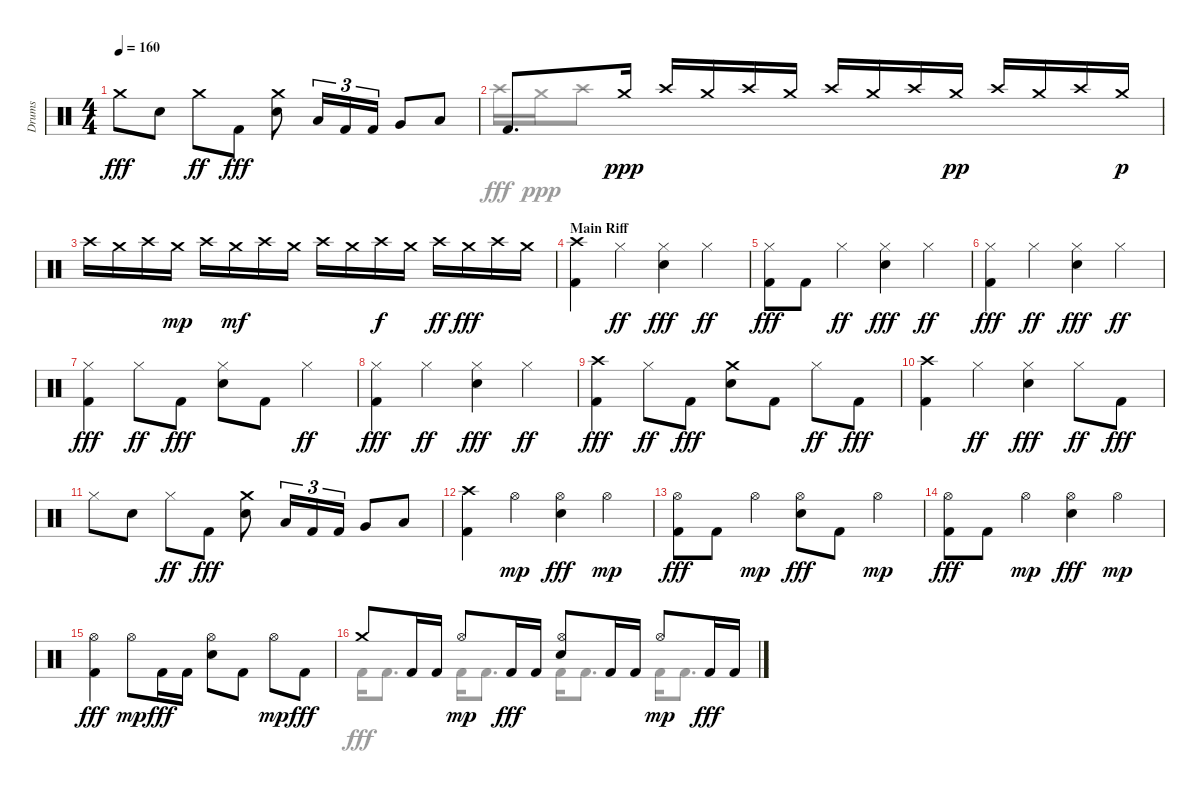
\track ("Drums" "Drums") {instrument percussion}
\staff {score}
\articulation defaults
\voice
\ts (4 4)
\tempo 160
\clef neutral
\ks aminor "Crash medium (hit)".8{dy fff} "Snare (hit) 2".8 "Crash medium (hit)".8{dy ff} "Kick (hit) 2".8{dy fff}
("Crash medium (hit)" "Snare (hit) 2").8 "Low Tom (hit)".16{tu (3 2)} "Kick (hit) 2".16{tu (3 2)} "Kick (hit) 2".16{tu (3 2)} "Very Low Tom (hit)".8 "Low Floor Tom (hit)".8 |
"Kick (hit) 2".8{d} "Crash medium (hit)".16{dy ppp} "Crash high (hit)".16 "Crash medium (hit)".16 "Crash high (hit)".16 "Crash medium (hit)".16 "Crash high (hit)".16 "Crash medium (hit)".16 "Crash high (hit)".16 "Crash medium (hit)".16{dy pp} "Crash high (hit)".16 "Crash medium (hit)".16 "Crash high (hit)".16 "Crash medium (hit)".16{dy p} |
"Crash high (hit)".16 "Crash medium (hit)".16 "Crash high (hit)".16 "Crash medium (hit)".16{dy mp} "Crash high (hit)".16 "Crash medium (hit)".16{dy mf} "Crash high (hit)".16 "Crash medium (hit)".16 "Crash high (hit)".16 "Crash medium (hit)".16 "Crash high (hit)".16{dy f} "Crash medium (hit)".16 "Crash high (hit)".16{dy ff} "Crash medium (hit)".16{dy fff} "Crash high (hit)".16 "Crash medium (hit)".16 |
\section ("" "Main Riff")
("Kick (hit) 2" "Crash high (hit)").4 "Hi-Hat (closed)".4{dy ff} ("Snare (hit) 2" "Hi-Hat (closed)").4{dy fff} "Hi-Hat (closed)".4{dy ff} |
("Kick (hit) 2" "Hi-Hat (closed)").8{dy fff} "Kick (hit) 2".8 "Hi-Hat (closed)".4{dy ff} ("Snare (hit) 2" "Hi-Hat (closed)").4{dy fff} "Hi-Hat (closed)".4{dy ff} |
("Kick (hit) 2" "Hi-Hat (closed)").4{dy fff} "Hi-Hat (closed)".4{dy ff} ("Snare (hit) 2" "Hi-Hat (closed)").4{dy fff} "Hi-Hat (closed)".4{dy ff} |
("Kick (hit) 2" "Hi-Hat (closed)").4{dy fff} "Hi-Hat (closed)".8{dy ff} "Kick (hit) 2".8{dy fff} ("Snare (hit) 2" "Hi-Hat (closed)").8 "Kick (hit) 2".8 "Hi-Hat (closed)".4{dy ff} |
("Kick (hit) 2" "Hi-Hat (closed)").4{dy fff} "Hi-Hat (closed)".4{dy ff} ("Snare (hit) 2" "Hi-Hat (closed)").4{dy fff} "Hi-Hat (closed)".4{dy ff} |
("Kick (hit) 2" "Crash high (hit)").4{dy fff} "Hi-Hat (closed)".8{dy ff} "Kick (hit) 2".8{dy fff} ("Snare (hit) 2" "Crash medium (hit)").8 "Kick (hit) 2".8 "Hi-Hat (closed)".8{dy ff} "Kick (hit) 2".8{dy fff} |
("Kick (hit) 2" "Crash high (hit)").4 "Hi-Hat (closed)".4{dy ff} ("Snare (hit) 2" "Hi-Hat (closed)").4{dy fff} "Hi-Hat (closed)".8{dy ff} "Kick (hit) 2".8{dy fff} |
"Hi-Hat (closed)".8 "Snare (hit) 2".8 "Hi-Hat (closed)".8{dy ff} "Kick (hit) 2".8{dy fff} ("Snare (hit) 2" "Crash medium (hit)").8 "Low Tom (hit)".16{tu (3 2)} "Kick (hit) 2".16{tu (3 2)} "Kick (hit) 2".16{tu (3 2)} "Very Low Tom (hit)".8 "Low Floor Tom (hit)".8 |
("Kick (hit) 2" "Crash high (hit)").4 "Hi-Hat (open)".4{dy mp} ("Snare (hit) 2" "Hi-Hat (open)").4{dy fff} "Hi-Hat (open)".4{dy mp} |
("Kick (hit) 2" "Hi-Hat (open)").8{dy fff} "Kick (hit) 2".8 "Hi-Hat (open)".4{dy mp} ("Hi-Hat (open)" "Snare (hit) 2").8{dy fff} "Kick (hit) 2".8 "Hi-Hat (open)".4{dy mp} |
("Hi-Hat (open)" "Kick (hit) 2").8{dy fff} "Kick (hit) 2".8 "Hi-Hat (open)".4{dy mp} ("Snare (hit) 2" "Hi-Hat (open)").4{dy fff} "Hi-Hat (open)".4{dy mp} |
("Hi-Hat (open)" "Kick (hit) 2").4{dy fff} "Hi-Hat (open)".8{dy mp} "Kick (hit) 2".16{dy fff} "Kick (hit) 2".16 ("Snare (hit) 2" "Hi-Hat (open)").8 "Kick (hit) 2".8 "Hi-Hat (open)".8{dy mp} "Kick (hit) 2".8{dy fff} |
"Crash medium (hit)".8 "Kick (hit) 2".16 "Kick (hit) 2".16 "Hi-Hat (open)".8{dy mp} "Kick (hit) 2".16{dy fff} "Kick (hit) 2".16 ("Snare (hit) 2" "Hi-Hat (open)").8 "Kick (hit) 2".16 "Kick (hit) 2".16 "Hi-Hat (open)".8{dy mp} "Kick (hit) 2".16{dy fff} "Kick (hit) 2".16
\voice
\clef neutral
\ottava regular
\simile none
\ks aminor
|
"Crash high (hit)".16{dy fff} "Crash medium (hit)".16{dy ppp} "Crash high (hit)".8 |
|
|
|
|
|
|
|
|
|
|
|
|
|
"Kick (hit) 2".16{dy fff} "Kick (hit) 2".8{d} "Kick (hit) 2".16 "Kick (hit) 2".8{d} "Kick (hit) 2".16 "Kick (hit) 2".8{d} "Kick (hit) 2".16 "Kick (hit) 2".8{d}
